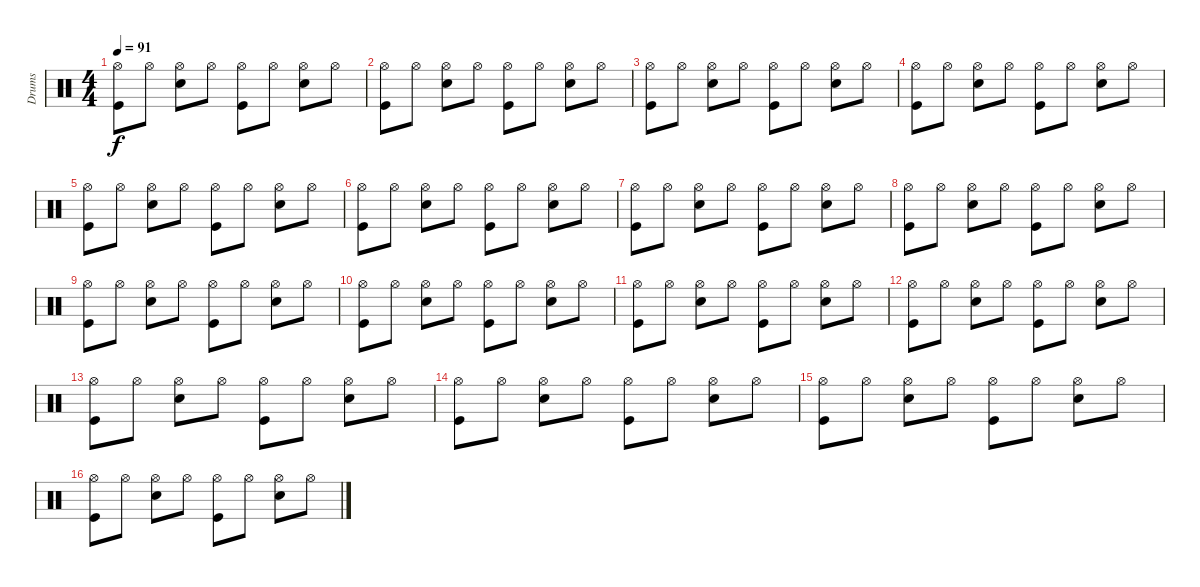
\track ("Drums" "Drums") {instrument percussion}
\staff {score}
\articulation defaults
\ts (4 4)
\tempo 91
\clef neutral
\ks c
("Hi-Hat (open)" "Kick (hit)").8{dy f} "Hi-Hat (open)".8 ("Hi-Hat (open)" "Snare (hit) 2").8 "Hi-Hat (open)".8 ("Hi-Hat (open)" "Kick (hit)").8 "Hi-Hat (open)".8 ("Hi-Hat (open)" "Snare (hit) 2").8 "Hi-Hat (open)".8 |
("Hi-Hat (open)" "Kick (hit)").8 "Hi-Hat (open)".8 ("Hi-Hat (open)" "Snare (hit) 2").8 "Hi-Hat (open)".8 ("Hi-Hat (open)" "Kick (hit)").8 "Hi-Hat (open)".8 ("Hi-Hat (open)" "Snare (hit) 2").8 "Hi-Hat (open)".8 |
("Hi-Hat (open)" "Kick (hit)").8 "Hi-Hat (open)".8 ("Hi-Hat (open)" "Snare (hit) 2").8 "Hi-Hat (open)".8 ("Hi-Hat (open)" "Kick (hit)").8 "Hi-Hat (open)".8 ("Hi-Hat (open)" "Snare (hit) 2").8 "Hi-Hat (open)".8 |
("Hi-Hat (open)" "Kick (hit)").8 "Hi-Hat (open)".8 ("Hi-Hat (open)" "Snare (hit) 2").8 "Hi-Hat (open)".8 ("Hi-Hat (open)" "Kick (hit)").8 "Hi-Hat (open)".8 ("Hi-Hat (open)" "Snare (hit) 2").8 "Hi-Hat (open)".8 |
("Hi-Hat (open)" "Kick (hit)").8 "Hi-Hat (open)".8 ("Hi-Hat (open)" "Snare (hit) 2").8 "Hi-Hat (open)".8 ("Hi-Hat (open)" "Kick (hit)").8 "Hi-Hat (open)".8 ("Hi-Hat (open)" "Snare (hit) 2").8 "Hi-Hat (open)".8 |
("Hi-Hat (open)" "Kick (hit)").8 "Hi-Hat (open)".8 ("Hi-Hat (open)" "Snare (hit) 2").8 "Hi-Hat (open)".8 ("Hi-Hat (open)" "Kick (hit)").8 "Hi-Hat (open)".8 ("Hi-Hat (open)" "Snare (hit) 2").8 "Hi-Hat (open)".8 |
("Hi-Hat (open)" "Kick (hit)").8 "Hi-Hat (open)".8 ("Hi-Hat (open)" "Snare (hit) 2").8 "Hi-Hat (open)".8 ("Hi-Hat (open)" "Kick (hit)").8 "Hi-Hat (open)".8 ("Hi-Hat (open)" "Snare (hit) 2").8 "Hi-Hat (open)".8 |
("Hi-Hat (open)" "Kick (hit)").8 "Hi-Hat (open)".8 ("Hi-Hat (open)" "Snare (hit) 2").8 "Hi-Hat (open)".8 ("Hi-Hat (open)" "Kick (hit)").8 "Hi-Hat (open)".8 ("Hi-Hat (open)" "Snare (hit) 2").8 "Hi-Hat (open)".8 |
("Hi-Hat (open)" "Kick (hit)").8 "Hi-Hat (open)".8 ("Hi-Hat (open)" "Snare (hit) 2").8 "Hi-Hat (open)".8 ("Hi-Hat (open)" "Kick (hit)").8 "Hi-Hat (open)".8 ("Hi-Hat (open)" "Snare (hit) 2").8 "Hi-Hat (open)".8 |
("Hi-Hat (open)" "Kick (hit)").8 "Hi-Hat (open)".8 ("Hi-Hat (open)" "Snare (hit) 2").8 "Hi-Hat (open)".8 ("Hi-Hat (open)" "Kick (hit)").8 "Hi-Hat (open)".8 ("Hi-Hat (open)" "Snare (hit) 2").8 "Hi-Hat (open)".8 |
("Hi-Hat (open)" "Kick (hit)").8 "Hi-Hat (open)".8 ("Hi-Hat (open)" "Snare (hit) 2").8 "Hi-Hat (open)".8 ("Hi-Hat (open)" "Kick (hit)").8 "Hi-Hat (open)".8 ("Hi-Hat (open)" "Snare (hit) 2").8 "Hi-Hat (open)".8 |
("Hi-Hat (open)" "Kick (hit)").8 "Hi-Hat (open)".8 ("Hi-Hat (open)" "Snare (hit) 2").8 "Hi-Hat (open)".8 ("Hi-Hat (open)" "Kick (hit)").8 "Hi-Hat (open)".8 ("Hi-Hat (open)" "Snare (hit) 2").8 "Hi-Hat (open)".8 |
("Hi-Hat (open)" "Kick (hit)").8 "Hi-Hat (open)".8 ("Hi-Hat (open)" "Snare (hit) 2").8 "Hi-Hat (open)".8 ("Hi-Hat (open)" "Kick (hit)").8 "Hi-Hat (open)".8 ("Hi-Hat (open)" "Snare (hit) 2").8 "Hi-Hat (open)".8 |
("Hi-Hat (open)" "Kick (hit)").8 "Hi-Hat (open)".8 ("Hi-Hat (open)" "Snare (hit) 2").8 "Hi-Hat (open)".8 ("Hi-Hat (open)" "Kick (hit)").8 "Hi-Hat (open)".8 ("Hi-Hat (open)" "Snare (hit) 2").8 "Hi-Hat (open)".8 |
("Hi-Hat (open)" "Kick (hit)").8 "Hi-Hat (open)".8 ("Hi-Hat (open)" "Snare (hit) 2").8 "Hi-Hat (open)".8 ("Hi-Hat (open)" "Kick (hit)").8 "Hi-Hat (open)".8 ("Hi-Hat (open)" "Snare (hit) 2").8 "Hi-Hat (open)".8 |
("Hi-Hat (open)" "Kick (hit)").8 "Hi-Hat (open)".8 ("Hi-Hat (open)" "Snare (hit) 2").8 "Hi-Hat (open)".8 ("Hi-Hat (open)" "Kick (hit)").8 "Hi-Hat (open)".8 ("Hi-Hat (open)" "Snare (hit) 2").8 "Hi-Hat (open)".8
